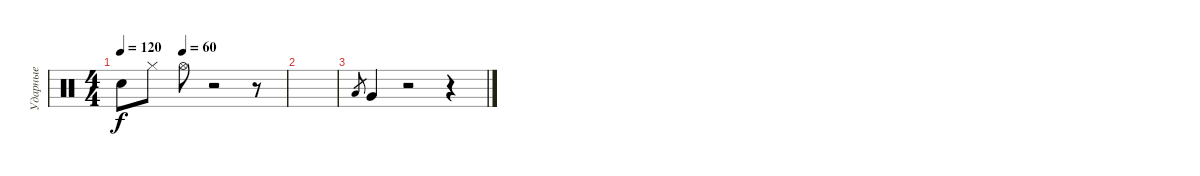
\track ("Ударные" "Ударные") {instrument percussion}
\staff {score}
\articulation defaults
\ts (4 4)
\tempo 120
\tempo (60 0.375)
\clef neutral
\ks c "Snare (hit) 2".8{dy f} "Hi-Hat (closed)".8 "Hi-Hat (open)".8
r.2 r.8 |
|
"Low Tom (hit)".8{gr} "Very Low Tom (hit)".4 r.2 r.4
